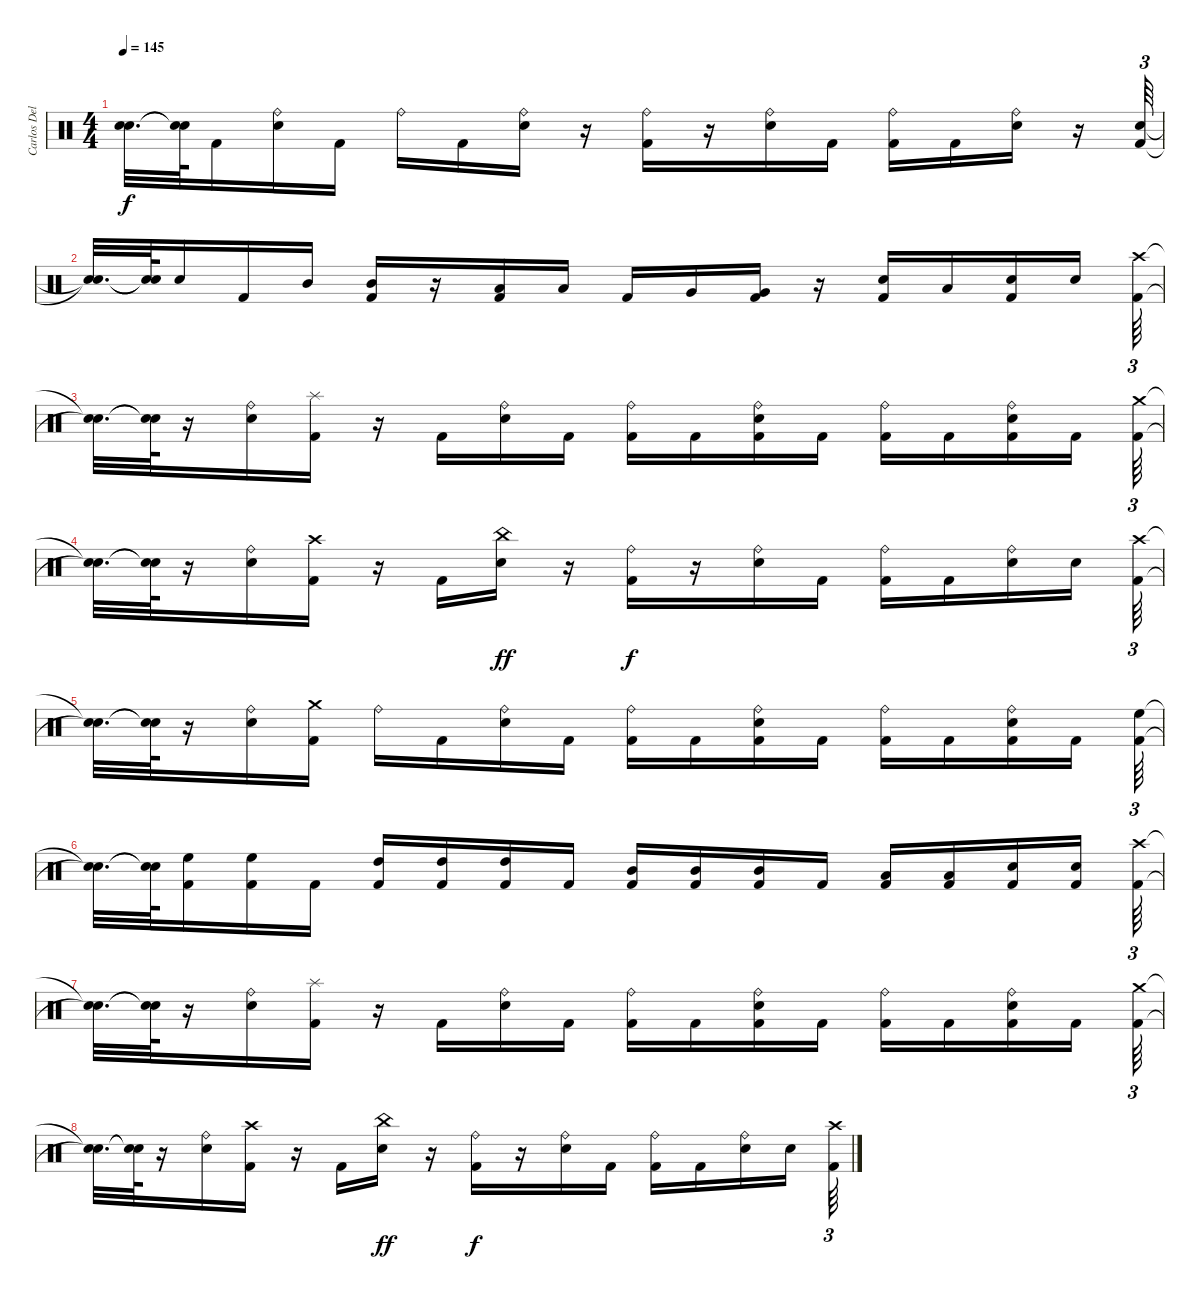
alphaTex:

\track ("Carlos Delgado" "Carlos Del") {instrument percussion}
\staff {score}
\articulation defaults
\ts (4 4)
\tempo 145
\clef neutral
\ks c
("Snare (hit)"{t} "Snare (hit)"{t}).32{d dy f} ("Snare (hit)"{t} "Snare (hit)"{t}).64 "Kick (hit) 2".16 ("Ride (bell)" "Electric Snare (hit)").16 "Kick (hit) 2".16 "Ride (bell)".16 "Kick (hit) 2".16 ("Ride (bell)" "Electric Snare (hit)").16 r.16 ("Kick (hit) 2" "Ride (bell)").16 r.16 ("Ride (bell)" "Electric Snare (hit)").16 "Kick (hit) 2".16 ("Kick (hit) 2" "Ride (bell)").16 "Kick (hit) 2".16 ("Ride (bell)" "Electric Snare (hit)").16 r.16 ("Kick (hit) 2" "Electric Snare (hit)").64{tu (3 2)} |
("Snare (hit)"{t} "Snare (hit)"{t}).32{d} ("Snare (hit)"{t} "Snare (hit)"{t}).64 "Electric Snare (hit)".16 "Kick (hit) 2".16 "Mid Tom (hit)".16 ("Kick (hit) 2" "Mid Tom (hit)").16 r.16 ("Kick (hit) 2" "Low Tom (hit)").16 "Low Tom (hit)".16 "Kick (hit) 2".16 "Very Low Tom (hit)".16 ("Kick (hit) 2" "Very Low Tom (hit)").16 r.16 ("Kick (hit) 2" "Electric Snare (hit)").16 "Low Tom (hit)".16 ("Electric Snare (hit)" "Kick (hit) 2").16 "Electric Snare (hit)".16 ("Crash high (hit)" "Kick (hit) 2").64{tu (3 2)} |
("Snare (hit)"{t} "Snare (hit)"{t}).32{d} ("Snare (hit)"{t} "Snare (hit)"{t}).64 r.16 ("Ride (bell)" "Electric Snare (hit)").16 ("Splash (hit)" "Kick (hit) 2").16 r.16 "Kick (hit) 2".16 ("Electric Snare (hit)" "Ride (bell)").16 "Kick (hit) 2".16 ("Kick (hit) 2" "Ride (bell)").16 "Kick (hit) 2".16 ("Kick (hit) 2" "Electric Snare (hit)" "Ride (bell)").16 "Kick (hit) 2".16 ("Kick (hit) 2" "Ride (bell)").16 "Kick (hit) 2".16 ("Kick (hit) 2" "Ride (bell)" "Electric Snare (hit)").16 "Kick (hit) 2".16 ("Crash medium (hit)" "Kick (hit) 2").64{tu (3 2)} |
("Snare (hit)"{t} "Snare (hit)"{t}).32{d} ("Snare (hit)"{t} "Snare (hit)"{t}).64 r.16 ("Ride (bell)" "Electric Snare (hit)").16 ("Kick (hit) 2" "Crash high (hit)").16 r.16 "Kick (hit) 2".16 ("China (hit)" "Electric Snare (hit)").16{dy ff} r.16 ("Kick (hit) 2" "Ride (bell)").16{dy f} r.16 ("Ride (bell)" "Electric Snare (hit)").16 "Kick (hit) 2".16 ("Kick (hit) 2" "Ride (bell)").16 "Kick (hit) 2".16 ("Ride (bell)" "Electric Snare (hit)").16 "Electric Snare (hit)".16 ("Crash high (hit)" "Kick (hit) 2").64{tu (3 2)} |
("Snare (hit)"{t} "Snare (hit)"{t}).32{d} ("Snare (hit)"{t} "Snare (hit)"{t}).64 r.16 ("Ride (bell)" "Electric Snare (hit)").16 ("Crash medium (hit)" "Kick (hit) 2").16 "Ride (bell)".16 "Kick (hit) 2".16 ("Ride (bell)" "Electric Snare (hit)").16 "Kick (hit) 2".16 ("Kick (hit) 2" "Ride (bell)").16 "Kick (hit) 2".16 ("Kick (hit) 2" "Ride (bell)" "Electric Snare (hit)").16 "Kick (hit) 2".16 ("Kick (hit) 2" "Ride (bell)").16 "Kick (hit) 2".16 ("Kick (hit) 2" "Ride (bell)" "Electric Snare (hit)").16 "Kick (hit) 2".16 ("High Floor Tom (hit)" "Kick (hit) 2").64{tu (3 2)} |
("Snare (hit)"{t} "Snare (hit)"{t}).32{d} ("Snare (hit)"{t} "Snare (hit)"{t}).64 ("Kick (hit) 2" "High Floor Tom (hit)").16 ("High Floor Tom (hit)" "Kick (hit) 2").16 "Kick (hit) 2".16 ("High Tom (hit)" "Kick (hit) 2").16 ("Kick (hit) 2" "High Tom (hit)").16 ("High Tom (hit)" "Kick (hit) 2").16 "Kick (hit) 2".16 ("Mid Tom (hit)" "Kick (hit) 2").16 ("Kick (hit) 2" "Mid Tom (hit)").16 ("Mid Tom (hit)" "Kick (hit) 2").16 "Kick (hit) 2".16 ("Low Tom (hit)" "Kick (hit) 2").16 ("Kick (hit) 2" "Low Tom (hit)").16 ("Electric Snare (hit)" "Kick (hit) 2").16 ("Electric Snare (hit)" "Kick (hit) 2").16 ("Crash high (hit)" "Kick (hit) 2").64{tu (3 2)} |
("Snare (hit)"{t} "Snare (hit)"{t}).32{d} ("Snare (hit)"{t} "Snare (hit)"{t}).64 r.16 ("Ride (bell)" "Electric Snare (hit)").16 ("Splash (hit)" "Kick (hit) 2").16 r.16 "Kick (hit) 2".16 ("Electric Snare (hit)" "Ride (bell)").16 "Kick (hit) 2".16 ("Kick (hit) 2" "Ride (bell)").16 "Kick (hit) 2".16 ("Kick (hit) 2" "Electric Snare (hit)" "Ride (bell)").16 "Kick (hit) 2".16 ("Kick (hit) 2" "Ride (bell)").16 "Kick (hit) 2".16 ("Kick (hit) 2" "Ride (bell)" "Electric Snare (hit)").16 "Kick (hit) 2".16 ("Crash medium (hit)" "Kick (hit) 2").64{tu (3 2)} |
("Snare (hit)"{t} "Snare (hit)"{t}).32{d} ("Snare (hit)"{t} "Snare (hit)"{t}).64 r.16 ("Ride (bell)" "Electric Snare (hit)").16 ("Kick (hit) 2" "Crash high (hit)").16 r.16 "Kick (hit) 2".16 ("China (hit)" "Electric Snare (hit)").16{dy ff} r.16 ("Kick (hit) 2" "Ride (bell)").16{dy f} r.16 ("Ride (bell)" "Electric Snare (hit)").16 "Kick (hit) 2".16 ("Kick (hit) 2" "Ride (bell)").16 "Kick (hit) 2".16 ("Ride (bell)" "Electric Snare (hit)").16 "Electric Snare (hit)".16 ("Crash high (hit)" "Kick (hit) 2").64{tu (3 2)}
